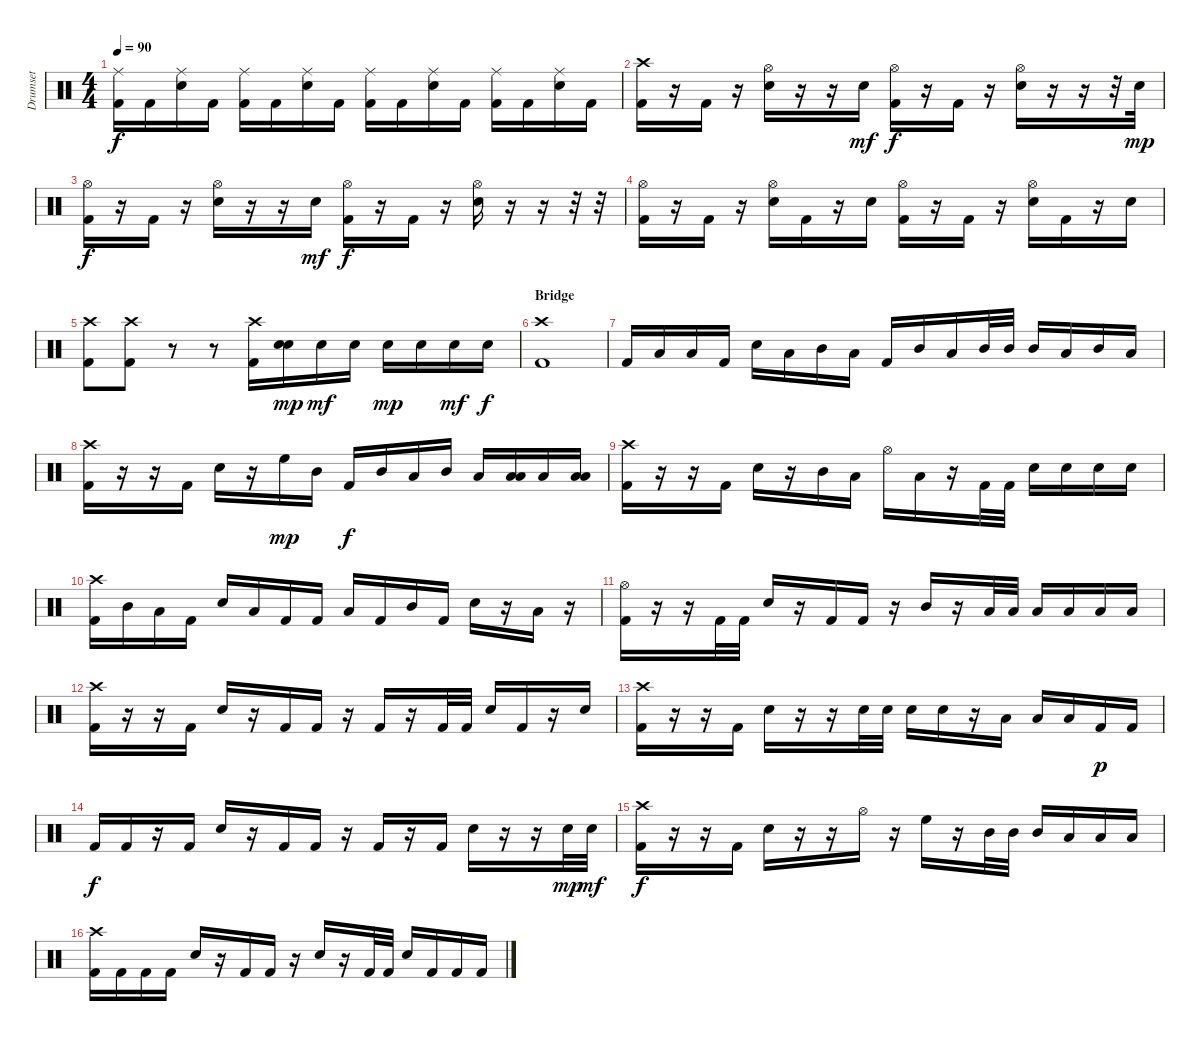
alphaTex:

\track ("Drumset" "Drumset") {instrument percussion}
\staff {score}
\articulation defaults
\ts (4 4)
\tempo 90
\clef neutral
\ks c
("Ride (middle)" "Kick (hit) 2").16{dy f} "Kick (hit) 2".16 ("Ride (middle)" "Electric Snare (hit)").16 "Kick (hit) 2".16 ("Ride (middle)" "Kick (hit) 2").16 "Kick (hit) 2".16 ("Ride (middle)" "Electric Snare (hit)").16 "Kick (hit) 2".16 ("Ride (middle)" "Kick (hit) 2").16 "Kick (hit) 2".16 ("Ride (middle)" "Electric Snare (hit)").16 "Kick (hit) 2".16 ("Ride (middle)" "Kick (hit) 2").16 "Kick (hit) 2".16 ("Ride (middle)" "Electric Snare (hit)").16 "Kick (hit) 2".16 |
("Crash high (hit)" "Kick (hit) 2").16 r.16 "Kick (hit) 2".16 r.16 ("Hi-Hat (open)" "Electric Snare (hit)").16 r.16 r.16 "Electric Snare (hit)".16{dy mf} ("Hi-Hat (open)" "Kick (hit) 2").16{dy f} r.16 "Kick (hit) 2".16 r.16 ("Hi-Hat (open)" "Electric Snare (hit)").16 r.16 r.16 r.32 "Electric Snare (hit)".32{dy mp} |
("Hi-Hat (open)" "Kick (hit) 2").16{dy f} r.16 "Kick (hit) 2".16 r.16 ("Hi-Hat (open)" "Electric Snare (hit)").16 r.16 r.16 "Electric Snare (hit)".16{dy mf} ("Hi-Hat (open)" "Kick (hit) 2").16{dy f} r.16 "Kick (hit) 2".16 r.16 ("Hi-Hat (open)" "Electric Snare (hit)").16 r.16 r.16 r.32 r.32 |
("Hi-Hat (open)" "Kick (hit) 2").16 r.16 "Kick (hit) 2".16 r.16 ("Hi-Hat (open)" "Electric Snare (hit)").16 "Kick (hit) 2".16 r.16 "Electric Snare (hit)".16 ("Hi-Hat (open)" "Kick (hit) 2").16 r.16 "Kick (hit) 2".16 r.16 ("Hi-Hat (open)" "Electric Snare (hit)").16 "Kick (hit) 2".16 r.16 "Electric Snare (hit)".16 |
("Crash high (hit)" "Kick (hit) 2").8 ("Crash high (hit)" "Kick (hit) 2").8 r.8 r.8 ("Crash high (hit)" "Kick (hit) 2").16 ("Electric Snare (hit)" "Electric Snare (hit)").16{bd 120 dy mp} "Electric Snare (hit)".16{dy mf} "Electric Snare (hit)".16 "Electric Snare (hit)".16{dy mp} "Electric Snare (hit)".16 "Electric Snare (hit)".16{dy mf} "Electric Snare (hit)".16{dy f} |
\section ("" "Bridge")
("Crash high (hit)" "Kick (hit) 2").1 |
"Kick (hit) 2".16 "Low Floor Tom (hit)".16 "Low Floor Tom (hit)".16 "Kick (hit) 2".16 "Electric Snare (hit)".16 "Low Floor Tom (hit)".16 "Mid Tom (hit)".16 "Low Tom (hit)".16 "Kick (hit) 2".16 "Mid Tom (hit)".16 "Low Tom (hit)".16 "Mid Tom (hit)".32 "Mid Tom (hit)".32 "Mid Tom (hit)".16 "Low Tom (hit)".16 "Mid Tom (hit)".16 "Low Floor Tom (hit)".16 |
("Crash high (hit)" "Kick (hit) 2").16 r.16 r.16 "Kick (hit) 2".16 "Electric Snare (hit)".16 r.16 "High Floor Tom (hit)".16{dy mp} "Mid Tom (hit)".16 "Kick (hit) 2".16{dy f} "Mid Tom (hit)".16 "Low Tom (hit)".16 "Mid Tom (hit)".16 "Low Tom (hit)".16 ("Low Tom (hit)" "Low Tom (hit)").16 "Low Floor Tom (hit)".16 ("Low Floor Tom (hit)" "Low Floor Tom (hit)").16 |
("Crash high (hit)" "Kick (hit) 2").16 r.16 r.16 "Kick (hit) 2".16 "Electric Snare (hit)".16 r.16 "Mid Tom (hit)".16 "Low Tom (hit)".16 "Hi-Hat (open)".16 "Low Floor Tom (hit)".16 r.16 "Kick (hit) 2".32 "Kick (hit) 2".32 "Electric Snare (hit)".16 "Electric Snare (hit)".16 "Electric Snare (hit)".16 "Electric Snare (hit)".16 |
("Crash high (hit)" "Kick (hit) 2").16 "Mid Tom (hit)".16 "Low Tom (hit)".16 "Kick (hit) 2".16 "Electric Snare (hit)".16 "Low Tom (hit)".16 "Kick (hit) 2".16 "Kick (hit) 2".16 "Low Floor Tom (hit)".16 "Kick (hit) 2".16 "Mid Tom (hit)".16 "Kick (hit) 2".16 "Electric Snare (hit)".16 r.16 "Low Tom (hit)".16 r.16 |
("Hi-Hat (open)" "Kick (hit) 2").16 r.16 r.16 "Kick (hit) 2".32 "Kick (hit) 2".32 "Electric Snare (hit)".16 r.16 "Kick (hit) 2".16 "Kick (hit) 2".16 r.16 "Mid Tom (hit)".16 r.16 "Low Tom (hit)".32 "Low Tom (hit)".32 "Low Floor Tom (hit)".16 "Low Floor Tom (hit)".16 "Low Floor Tom (hit)".16 "Low Floor Tom (hit)".16 |
("Crash high (hit)" "Kick (hit) 2").16 r.16 r.16 "Kick (hit) 2".16 "Electric Snare (hit)".16 r.16 "Kick (hit) 2".16 "Kick (hit) 2".16 r.16 "Kick (hit) 2".16 r.16 "Kick (hit) 2".32 "Kick (hit) 2".32 "Electric Snare (hit)".16 "Kick (hit) 2".16 r.16 "Electric Snare (hit)".16 |
("Crash high (hit)" "Kick (hit) 2").16 r.16 r.16 "Kick (hit) 2".16 "Electric Snare (hit)".16 r.16 r.16 "Electric Snare (hit)".32 "Electric Snare (hit)".32 "Electric Snare (hit)".16 "Electric Snare (hit)".16 r.16 "Low Tom (hit)".16 "Low Tom (hit)".16 "Low Floor Tom (hit)".16 "Kick (hit) 2".16{dy p} "Kick (hit) 2".16 |
"Kick (hit) 2".16{dy f} "Kick (hit) 2".16 r.16 "Kick (hit) 2".16 "Electric Snare (hit)".16 r.16 "Kick (hit) 2".16 "Kick (hit) 2".16 r.16 "Kick (hit) 2".16 r.16 "Kick (hit) 2".16 "Electric Snare (hit)".16 r.16 r.16 "Electric Snare (hit)".32{dy mp} "Electric Snare (hit)".32{dy mf} |
("Crash high (hit)" "Kick (hit) 2").16{dy f} r.16 r.16 "Kick (hit) 2".16 "Electric Snare (hit)".16 r.16 r.16 "Hi-Hat (open)".16 r.16 "High Floor Tom (hit)".16 r.16 "Mid Tom (hit)".32 "Mid Tom (hit)".32 "Mid Tom (hit)".16 "Low Tom (hit)".16 "Low Tom (hit)".16 "Low Floor Tom (hit)".16 |
("Crash high (hit)" "Kick (hit) 2").16 "Kick (hit) 2".16 "Kick (hit) 2".16 "Kick (hit) 2".16 "Electric Snare (hit)".16 r.16 "Kick (hit) 2".16 "Kick (hit) 2".16 r.16 "Electric Snare (hit)".16 r.16 "Kick (hit) 2".32 "Kick (hit) 2".32 "Electric Snare (hit)".16 "Kick (hit) 2".16 "Kick (hit) 2".16 "Kick (hit) 2".16
